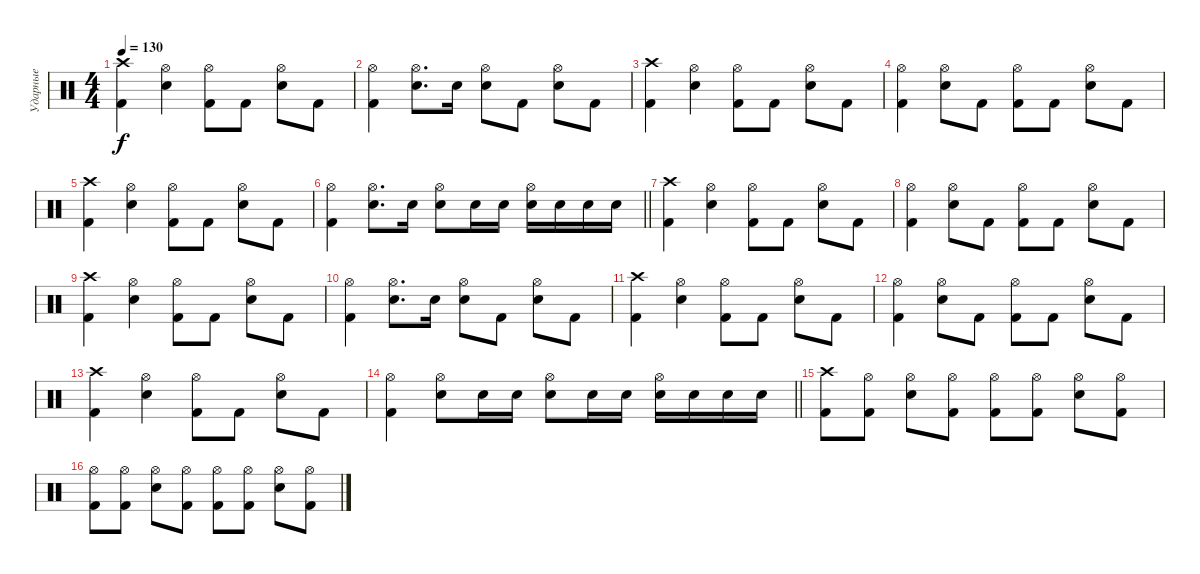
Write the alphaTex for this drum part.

\track ("Ударные" "Ударные") {instrument percussion}
\staff {score}
\articulation defaults
\ts (4 4)
\tempo 130
\clef neutral
\ks c
("Crash high (hit)" "Kick (hit) 2").4{dy f} ("Hi-Hat (open)" "Snare (hit) 2").4 ("Hi-Hat (open)" "Kick (hit) 2").8 "Kick (hit) 2".8 ("Hi-Hat (open)" "Snare (hit) 2").8 "Kick (hit) 2".8 |
("Hi-Hat (open)" "Kick (hit) 2").4 ("Hi-Hat (open)" "Snare (hit) 2").8{d} "Snare (hit) 2".16 ("Hi-Hat (open)" "Snare (hit) 2").8 "Kick (hit) 2".8 ("Hi-Hat (open)" "Snare (hit) 2").8 "Kick (hit) 2".8 |
("Crash high (hit)" "Kick (hit) 2").4 ("Hi-Hat (open)" "Snare (hit) 2").4 ("Hi-Hat (open)" "Kick (hit) 2").8 "Kick (hit) 2".8 ("Hi-Hat (open)" "Snare (hit) 2").8 "Kick (hit) 2".8 |
("Hi-Hat (open)" "Kick (hit) 2").4 ("Hi-Hat (open)" "Snare (hit) 2").8 "Kick (hit) 2".8 ("Hi-Hat (open)" "Kick (hit) 2").8 "Kick (hit) 2".8 ("Hi-Hat (open)" "Snare (hit) 2").8 "Kick (hit) 2".8 |
("Crash high (hit)" "Kick (hit) 2").4 ("Hi-Hat (open)" "Snare (hit) 2").4 ("Hi-Hat (open)" "Kick (hit) 2").8 "Kick (hit) 2".8 ("Hi-Hat (open)" "Snare (hit) 2").8 "Kick (hit) 2".8 |
\barLineRight lightlight
("Hi-Hat (open)" "Kick (hit) 2").4 ("Hi-Hat (open)" "Snare (hit) 2").8{d} "Snare (hit) 2".16 ("Hi-Hat (open)" "Snare (hit) 2").8 "Snare (hit) 2".16 "Snare (hit) 2".16 ("Hi-Hat (open)" "Snare (hit) 2").16 "Snare (hit) 2".16 "Snare (hit) 2".16 "Snare (hit) 2".16 |
("Crash high (hit)" "Kick (hit) 2").4 ("Hi-Hat (open)" "Snare (hit) 2").4 ("Hi-Hat (open)" "Kick (hit) 2").8 "Kick (hit) 2".8 ("Hi-Hat (open)" "Snare (hit) 2").8 "Kick (hit) 2".8 |
("Hi-Hat (open)" "Kick (hit) 2").4 ("Hi-Hat (open)" "Snare (hit) 2").8 "Kick (hit) 2".8 ("Hi-Hat (open)" "Kick (hit) 2").8 "Kick (hit) 2".8 ("Hi-Hat (open)" "Snare (hit) 2").8 "Kick (hit) 2".8 |
("Crash high (hit)" "Kick (hit) 2").4 ("Hi-Hat (open)" "Snare (hit) 2").4 ("Hi-Hat (open)" "Kick (hit) 2").8 "Kick (hit) 2".8 ("Hi-Hat (open)" "Snare (hit) 2").8 "Kick (hit) 2".8 |
("Hi-Hat (open)" "Kick (hit) 2").4 ("Hi-Hat (open)" "Snare (hit) 2").8{d} "Snare (hit) 2".16 ("Hi-Hat (open)" "Snare (hit) 2").8 "Kick (hit) 2".8 ("Hi-Hat (open)" "Snare (hit) 2").8 "Kick (hit) 2".8 |
("Crash high (hit)" "Kick (hit) 2").4 ("Hi-Hat (open)" "Snare (hit) 2").4 ("Hi-Hat (open)" "Kick (hit) 2").8 "Kick (hit) 2".8 ("Hi-Hat (open)" "Snare (hit) 2").8 "Kick (hit) 2".8 |
("Hi-Hat (open)" "Kick (hit) 2").4 ("Hi-Hat (open)" "Snare (hit) 2").8 "Kick (hit) 2".8 ("Hi-Hat (open)" "Kick (hit) 2").8 "Kick (hit) 2".8 ("Hi-Hat (open)" "Snare (hit) 2").8 "Kick (hit) 2".8 |
("Crash high (hit)" "Kick (hit) 2").4 ("Hi-Hat (open)" "Snare (hit) 2").4 ("Hi-Hat (open)" "Kick (hit) 2").8 "Kick (hit) 2".8 ("Hi-Hat (open)" "Snare (hit) 2").8 "Kick (hit) 2".8 |
\barLineRight lightlight
("Hi-Hat (open)" "Kick (hit) 2").4 ("Hi-Hat (open)" "Snare (hit) 2").8 "Snare (hit) 2".16 "Snare (hit) 2".16 ("Hi-Hat (open)" "Snare (hit) 2").8 "Snare (hit) 2".16 "Snare (hit) 2".16 ("Hi-Hat (open)" "Snare (hit) 2").16 "Snare (hit) 2".16 "Snare (hit) 2".16 "Snare (hit) 2".16 |
("Crash high (hit)" "Kick (hit) 2").8 ("Hi-Hat (open)" "Kick (hit) 2").8 ("Hi-Hat (open)" "Snare (hit) 2").8 ("Hi-Hat (open)" "Kick (hit) 2").8 ("Hi-Hat (open)" "Kick (hit) 2").8 ("Hi-Hat (open)" "Kick (hit) 2").8 ("Hi-Hat (open)" "Snare (hit) 2").8 ("Hi-Hat (open)" "Kick (hit) 2").8 |
("Hi-Hat (open)" "Kick (hit) 2").8 ("Hi-Hat (open)" "Kick (hit) 2").8 ("Hi-Hat (open)" "Snare (hit) 2").8 ("Hi-Hat (open)" "Kick (hit) 2").8 ("Hi-Hat (open)" "Kick (hit) 2").8 ("Hi-Hat (open)" "Kick (hit) 2").8 ("Hi-Hat (open)" "Snare (hit) 2").8 ("Hi-Hat (open)" "Kick (hit) 2").8
